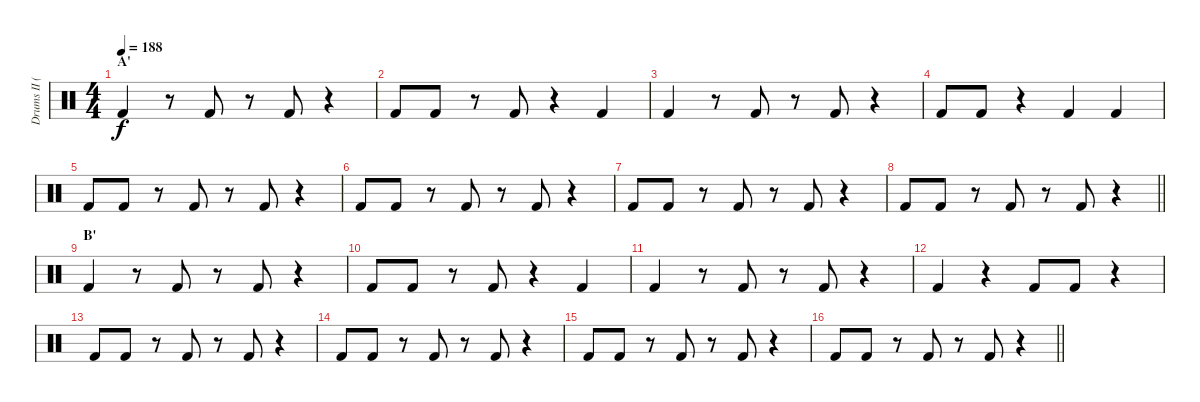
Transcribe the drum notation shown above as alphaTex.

\track ("Drums II (Ruka)" "Drums II (") {instrument percussion}
\staff {score}
\articulation defaults
\ts (4 4)
\section ("" "A'")
\tempo 188
\clef neutral
\ks c "Kick (hit) 2".4{dy f}
r.8 "Kick (hit) 2".8 r.8 "Kick (hit) 2".8 r.4 |
"Kick (hit) 2".8 "Kick (hit) 2".8 r.8 "Kick (hit) 2".8 r.4 "Kick (hit) 2".4 |
"Kick (hit) 2".4 r.8 "Kick (hit) 2".8 r.8 "Kick (hit) 2".8 r.4 |
"Kick (hit) 2".8 "Kick (hit) 2".8 r.4 "Kick (hit) 2".4 "Kick (hit) 2".4 |
"Kick (hit) 2".8 "Kick (hit) 2".8 r.8 "Kick (hit) 2".8 r.8 "Kick (hit) 2".8 r.4 |
"Kick (hit) 2".8 "Kick (hit) 2".8 r.8 "Kick (hit) 2".8 r.8 "Kick (hit) 2".8 r.4 |
"Kick (hit) 2".8 "Kick (hit) 2".8 r.8 "Kick (hit) 2".8 r.8 "Kick (hit) 2".8 r.4 |
\barLineRight lightlight "Kick (hit) 2".8 "Kick (hit) 2".8
r.8 "Kick (hit) 2".8 r.8 "Kick (hit) 2".8 r.4 |
\section ("" "B'")
"Kick (hit) 2".4 r.8 "Kick (hit) 2".8 r.8 "Kick (hit) 2".8 r.4 |
"Kick (hit) 2".8 "Kick (hit) 2".8 r.8 "Kick (hit) 2".8 r.4 "Kick (hit) 2".4 |
"Kick (hit) 2".4 r.8 "Kick (hit) 2".8 r.8 "Kick (hit) 2".8 r.4 |
"Kick (hit) 2".4 r.4 "Kick (hit) 2".8 "Kick (hit) 2".8 r.4 |
"Kick (hit) 2".8 "Kick (hit) 2".8 r.8 "Kick (hit) 2".8 r.8 "Kick (hit) 2".8 r.4 |
"Kick (hit) 2".8 "Kick (hit) 2".8 r.8 "Kick (hit) 2".8 r.8 "Kick (hit) 2".8 r.4 |
"Kick (hit) 2".8 "Kick (hit) 2".8 r.8 "Kick (hit) 2".8 r.8 "Kick (hit) 2".8 r.4 |
\barLineRight lightlight "Kick (hit) 2".8 "Kick (hit) 2".8
r.8 "Kick (hit) 2".8 r.8 "Kick (hit) 2".8 r.4
